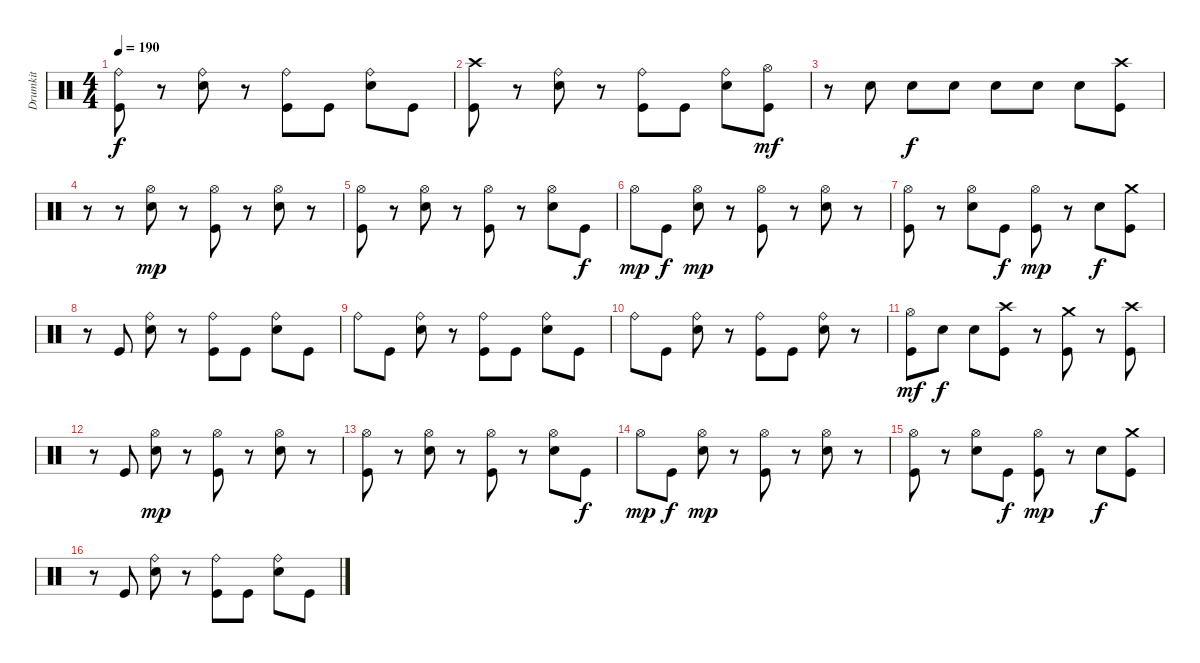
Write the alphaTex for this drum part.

\track ("Drumkit" "Drumkit") {instrument percussion}
\staff {score}
\articulation defaults
\ts (4 4)
\tempo 190
\clef neutral
\ks c
("Ride (bell)" "Kick (hit)").8{dy f} r.8 ("Ride (bell)" "Snare (hit) 2").8 r.8 ("Ride (bell)" "Kick (hit)").8 "Kick (hit)".8 ("Ride (bell)" "Snare (hit) 2").8 "Kick (hit)".8 |
("Crash high (hit)" "Kick (hit)").8 r.8 ("Ride (bell)" "Snare (hit) 2").8 r.8 ("Ride (bell)" "Kick (hit)").8 "Kick (hit)".8 ("Ride (bell)" "Snare (hit) 2").8 ("Hi-Hat (open)" "Kick (hit)").8{dy mf} |
r.8 "Snare (hit) 2".8 "Snare (hit) 2".8{dy f} "Snare (hit) 2".8 "Snare (hit) 2".8 "Snare (hit) 2".8 "Snare (hit) 2".8 ("Crash high (hit)" "Kick (hit)").8 |
r.8 r.8 ("Hi-Hat (open)" "Snare (hit) 2").8{dy mp} r.8 ("Hi-Hat (open)" "Kick (hit)").8 r.8 ("Hi-Hat (open)" "Snare (hit) 2").8 r.8 |
("Hi-Hat (open)" "Kick (hit)").8 r.8 ("Hi-Hat (open)" "Snare (hit) 2").8 r.8 ("Hi-Hat (open)" "Kick (hit)").8 r.8 ("Hi-Hat (open)" "Snare (hit) 2").8 "Kick (hit)".8{dy f} |
"Hi-Hat (open)".8{dy mp} "Kick (hit)".8{dy f} ("Hi-Hat (open)" "Snare (hit) 2").8{dy mp} r.8 ("Hi-Hat (open)" "Kick (hit)").8 r.8 ("Hi-Hat (open)" "Snare (hit) 2").8 r.8 |
("Hi-Hat (open)" "Kick (hit)").8 r.8 ("Hi-Hat (open)" "Snare (hit) 2").8 "Kick (hit)".8{dy f} ("Hi-Hat (open)" "Kick (hit)").8{dy mp} r.8 "Snare (hit) 2".8{dy f} ("Crash medium (hit)" "Kick (hit)").8 |
r.8 "Kick (hit)".8 ("Ride (bell)" "Snare (hit) 2").8 r.8 ("Ride (bell)" "Kick (hit)").8 "Kick (hit)".8 ("Ride (bell)" "Snare (hit) 2").8 "Kick (hit)".8 |
"Ride (bell)".8 "Kick (hit)".8 ("Ride (bell)" "Snare (hit) 2").8 r.8 ("Ride (bell)" "Kick (hit)").8 "Kick (hit)".8 ("Ride (bell)" "Snare (hit) 2").8 "Kick (hit)".8 |
"Ride (bell)".8 "Kick (hit)".8 ("Ride (bell)" "Snare (hit) 2").8 r.8 ("Ride (bell)" "Kick (hit)").8 "Kick (hit)".8 ("Ride (bell)" "Snare (hit) 2").8 r.8 |
("Hi-Hat (open)" "Kick (hit)").8{dy mf} "Snare (hit) 2".8{dy f} "Snare (hit) 2".8 ("Crash high (hit)" "Kick (hit)").8 r.8 ("Crash medium (hit)" "Kick (hit)").8 r.8 ("Crash high (hit)" "Kick (hit)").8 |
r.8 "Kick (hit)".8 ("Hi-Hat (open)" "Snare (hit) 2").8{dy mp} r.8 ("Hi-Hat (open)" "Kick (hit)").8 r.8 ("Hi-Hat (open)" "Snare (hit) 2").8 r.8 |
("Hi-Hat (open)" "Kick (hit)").8 r.8 ("Hi-Hat (open)" "Snare (hit) 2").8 r.8 ("Hi-Hat (open)" "Kick (hit)").8 r.8 ("Hi-Hat (open)" "Snare (hit) 2").8 "Kick (hit)".8{dy f} |
"Hi-Hat (open)".8{dy mp} "Kick (hit)".8{dy f} ("Hi-Hat (open)" "Snare (hit) 2").8{dy mp} r.8 ("Hi-Hat (open)" "Kick (hit)").8 r.8 ("Hi-Hat (open)" "Snare (hit) 2").8 r.8 |
("Hi-Hat (open)" "Kick (hit)").8 r.8 ("Hi-Hat (open)" "Snare (hit) 2").8 "Kick (hit)".8{dy f} ("Hi-Hat (open)" "Kick (hit)").8{dy mp} r.8 "Snare (hit) 2".8{dy f} ("Crash medium (hit)" "Kick (hit)").8 |
r.8 "Kick (hit)".8 ("Ride (bell)" "Snare (hit) 2").8 r.8 ("Ride (bell)" "Kick (hit)").8 "Kick (hit)".8 ("Ride (bell)" "Snare (hit) 2").8 "Kick (hit)".8
